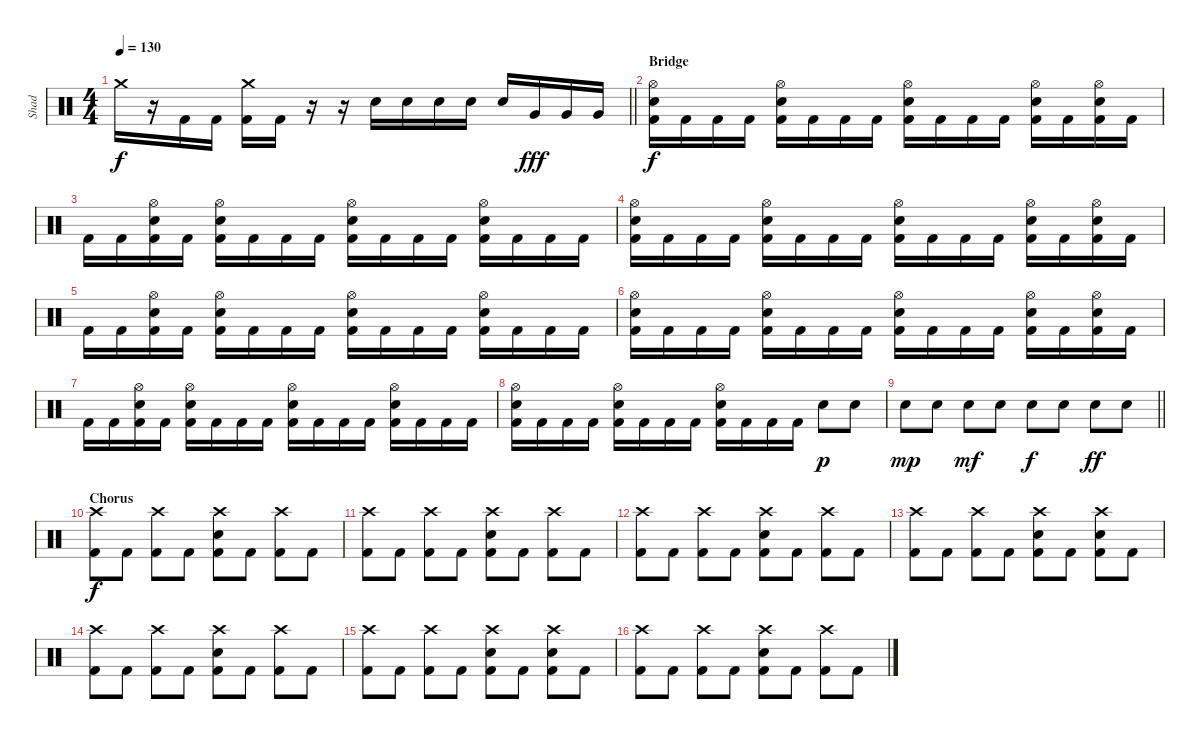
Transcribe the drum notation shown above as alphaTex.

\track ("Shad" "Shad") {instrument percussion}
\staff {score}
\articulation defaults
\ts (4 4)
\tempo 130
\clef neutral
\barLineRight lightlight
\ks c "Crash medium (hit)".16{dy f}
r.16 "Kick (hit) 2".16 "Kick (hit) 2".16 ("Crash medium (hit)" "Kick (hit) 2").16 "Kick (hit) 2".16 r.16 r.16 "Electric Snare (hit)".16 "Electric Snare (hit)".16 "Electric Snare (hit)".16 "Electric Snare (hit)".16 "Electric Snare (hit)".16 "Very Low Tom (hit)".16{dy fff} "Very Low Tom (hit)".16 "Very Low Tom (hit)".16 |
\section ("" "Bridge")
("Hi-Hat (open)" "Electric Snare (hit)" "Kick (hit) 2").16{dy f} "Kick (hit) 2".16 "Kick (hit) 2".16 "Kick (hit) 2".16 ("Hi-Hat (open)" "Electric Snare (hit)" "Kick (hit) 2").16 "Kick (hit) 2".16 "Kick (hit) 2".16 "Kick (hit) 2".16 ("Hi-Hat (open)" "Electric Snare (hit)" "Kick (hit) 2").16 "Kick (hit) 2".16 "Kick (hit) 2".16 "Kick (hit) 2".16 ("Hi-Hat (open)" "Electric Snare (hit)" "Kick (hit) 2").16 "Kick (hit) 2".16 ("Hi-Hat (open)" "Electric Snare (hit)" "Kick (hit) 2").16 "Kick (hit) 2".16 |
"Kick (hit) 2".16 "Kick (hit) 2".16 ("Hi-Hat (open)" "Electric Snare (hit)" "Kick (hit) 2").16 "Kick (hit) 2".16 ("Hi-Hat (open)" "Electric Snare (hit)" "Kick (hit) 2").16 "Kick (hit) 2".16 "Kick (hit) 2".16 "Kick (hit) 2".16 ("Hi-Hat (open)" "Electric Snare (hit)" "Kick (hit) 2").16 "Kick (hit) 2".16 "Kick (hit) 2".16 "Kick (hit) 2".16 ("Hi-Hat (open)" "Electric Snare (hit)" "Kick (hit) 2").16 "Kick (hit) 2".16 "Kick (hit) 2".16 "Kick (hit) 2".16 |
("Hi-Hat (open)" "Electric Snare (hit)" "Kick (hit) 2").16 "Kick (hit) 2".16 "Kick (hit) 2".16 "Kick (hit) 2".16 ("Hi-Hat (open)" "Electric Snare (hit)" "Kick (hit) 2").16 "Kick (hit) 2".16 "Kick (hit) 2".16 "Kick (hit) 2".16 ("Hi-Hat (open)" "Electric Snare (hit)" "Kick (hit) 2").16 "Kick (hit) 2".16 "Kick (hit) 2".16 "Kick (hit) 2".16 ("Hi-Hat (open)" "Electric Snare (hit)" "Kick (hit) 2").16 "Kick (hit) 2".16 ("Hi-Hat (open)" "Electric Snare (hit)" "Kick (hit) 2").16 "Kick (hit) 2".16 |
"Kick (hit) 2".16 "Kick (hit) 2".16 ("Hi-Hat (open)" "Electric Snare (hit)" "Kick (hit) 2").16 "Kick (hit) 2".16 ("Hi-Hat (open)" "Electric Snare (hit)" "Kick (hit) 2").16 "Kick (hit) 2".16 "Kick (hit) 2".16 "Kick (hit) 2".16 ("Hi-Hat (open)" "Electric Snare (hit)" "Kick (hit) 2").16 "Kick (hit) 2".16 "Kick (hit) 2".16 "Kick (hit) 2".16 ("Hi-Hat (open)" "Electric Snare (hit)" "Kick (hit) 2").16 "Kick (hit) 2".16 "Kick (hit) 2".16 "Kick (hit) 2".16 |
("Hi-Hat (open)" "Electric Snare (hit)" "Kick (hit) 2").16 "Kick (hit) 2".16 "Kick (hit) 2".16 "Kick (hit) 2".16 ("Hi-Hat (open)" "Electric Snare (hit)" "Kick (hit) 2").16 "Kick (hit) 2".16 "Kick (hit) 2".16 "Kick (hit) 2".16 ("Hi-Hat (open)" "Electric Snare (hit)" "Kick (hit) 2").16 "Kick (hit) 2".16 "Kick (hit) 2".16 "Kick (hit) 2".16 ("Hi-Hat (open)" "Electric Snare (hit)" "Kick (hit) 2").16 "Kick (hit) 2".16 ("Hi-Hat (open)" "Electric Snare (hit)" "Kick (hit) 2").16 "Kick (hit) 2".16 |
"Kick (hit) 2".16 "Kick (hit) 2".16 ("Hi-Hat (open)" "Electric Snare (hit)" "Kick (hit) 2").16 "Kick (hit) 2".16 ("Hi-Hat (open)" "Electric Snare (hit)" "Kick (hit) 2").16 "Kick (hit) 2".16 "Kick (hit) 2".16 "Kick (hit) 2".16 ("Hi-Hat (open)" "Electric Snare (hit)" "Kick (hit) 2").16 "Kick (hit) 2".16 "Kick (hit) 2".16 "Kick (hit) 2".16 ("Hi-Hat (open)" "Electric Snare (hit)" "Kick (hit) 2").16 "Kick (hit) 2".16 "Kick (hit) 2".16 "Kick (hit) 2".16 |
("Hi-Hat (open)" "Electric Snare (hit)" "Kick (hit) 2").16 "Kick (hit) 2".16 "Kick (hit) 2".16 "Kick (hit) 2".16 ("Hi-Hat (open)" "Electric Snare (hit)" "Kick (hit) 2").16 "Kick (hit) 2".16 "Kick (hit) 2".16 "Kick (hit) 2".16 ("Hi-Hat (open)" "Electric Snare (hit)" "Kick (hit) 2").16 "Kick (hit) 2".16 "Kick (hit) 2".16 "Kick (hit) 2".16 "Electric Snare (hit)".8{dy p} "Electric Snare (hit)".8 |
\barLineRight lightlight "Electric Snare (hit)".8{dy mp} "Electric Snare (hit)".8 "Electric Snare (hit)".8{dy mf} "Electric Snare (hit)".8 "Electric Snare (hit)".8{dy f} "Electric Snare (hit)".8 "Electric Snare (hit)".8{dy ff} "Electric Snare (hit)".8
|
\section ("" "Chorus")
("Crash high (hit)" "Kick (hit) 2").8{dy f} "Kick (hit) 2".8 ("Crash high (hit)" "Kick (hit) 2").8 "Kick (hit) 2".8 ("Crash high (hit)" "Electric Snare (hit)" "Kick (hit) 2").8 "Kick (hit) 2".8 ("Crash high (hit)" "Kick (hit) 2").8 "Kick (hit) 2".8 |
("Crash high (hit)" "Kick (hit) 2").8 "Kick (hit) 2".8 ("Crash high (hit)" "Kick (hit) 2").8 "Kick (hit) 2".8 ("Crash high (hit)" "Electric Snare (hit)" "Kick (hit) 2").8 "Kick (hit) 2".8 ("Crash high (hit)" "Kick (hit) 2").8 "Kick (hit) 2".8 |
("Crash high (hit)" "Kick (hit) 2").8 "Kick (hit) 2".8 ("Crash high (hit)" "Kick (hit) 2").8 "Kick (hit) 2".8 ("Crash high (hit)" "Electric Snare (hit)" "Kick (hit) 2").8 "Kick (hit) 2".8 ("Crash high (hit)" "Kick (hit) 2").8 "Kick (hit) 2".8 |
("Crash high (hit)" "Kick (hit) 2").8 "Kick (hit) 2".8 ("Crash high (hit)" "Kick (hit) 2").8 "Kick (hit) 2".8 ("Crash high (hit)" "Electric Snare (hit)" "Kick (hit) 2").8 "Kick (hit) 2".8 ("Crash high (hit)" "Electric Snare (hit)" "Kick (hit) 2").8 "Kick (hit) 2".8 |
("Crash high (hit)" "Kick (hit) 2").8 "Kick (hit) 2".8 ("Crash high (hit)" "Kick (hit) 2").8 "Kick (hit) 2".8 ("Crash high (hit)" "Electric Snare (hit)" "Kick (hit) 2").8 "Kick (hit) 2".8 ("Crash high (hit)" "Kick (hit) 2").8 "Kick (hit) 2".8 |
("Crash high (hit)" "Kick (hit) 2").8 "Kick (hit) 2".8 ("Crash high (hit)" "Kick (hit) 2").8 "Kick (hit) 2".8 ("Crash high (hit)" "Electric Snare (hit)" "Kick (hit) 2").8 "Kick (hit) 2".8 ("Crash high (hit)" "Electric Snare (hit)" "Kick (hit) 2").8 "Kick (hit) 2".8 |
("Crash high (hit)" "Kick (hit) 2").8 "Kick (hit) 2".8 ("Crash high (hit)" "Kick (hit) 2").8 "Kick (hit) 2".8 ("Crash high (hit)" "Electric Snare (hit)" "Kick (hit) 2").8 "Kick (hit) 2".8 ("Crash high (hit)" "Kick (hit) 2").8 "Kick (hit) 2".8
